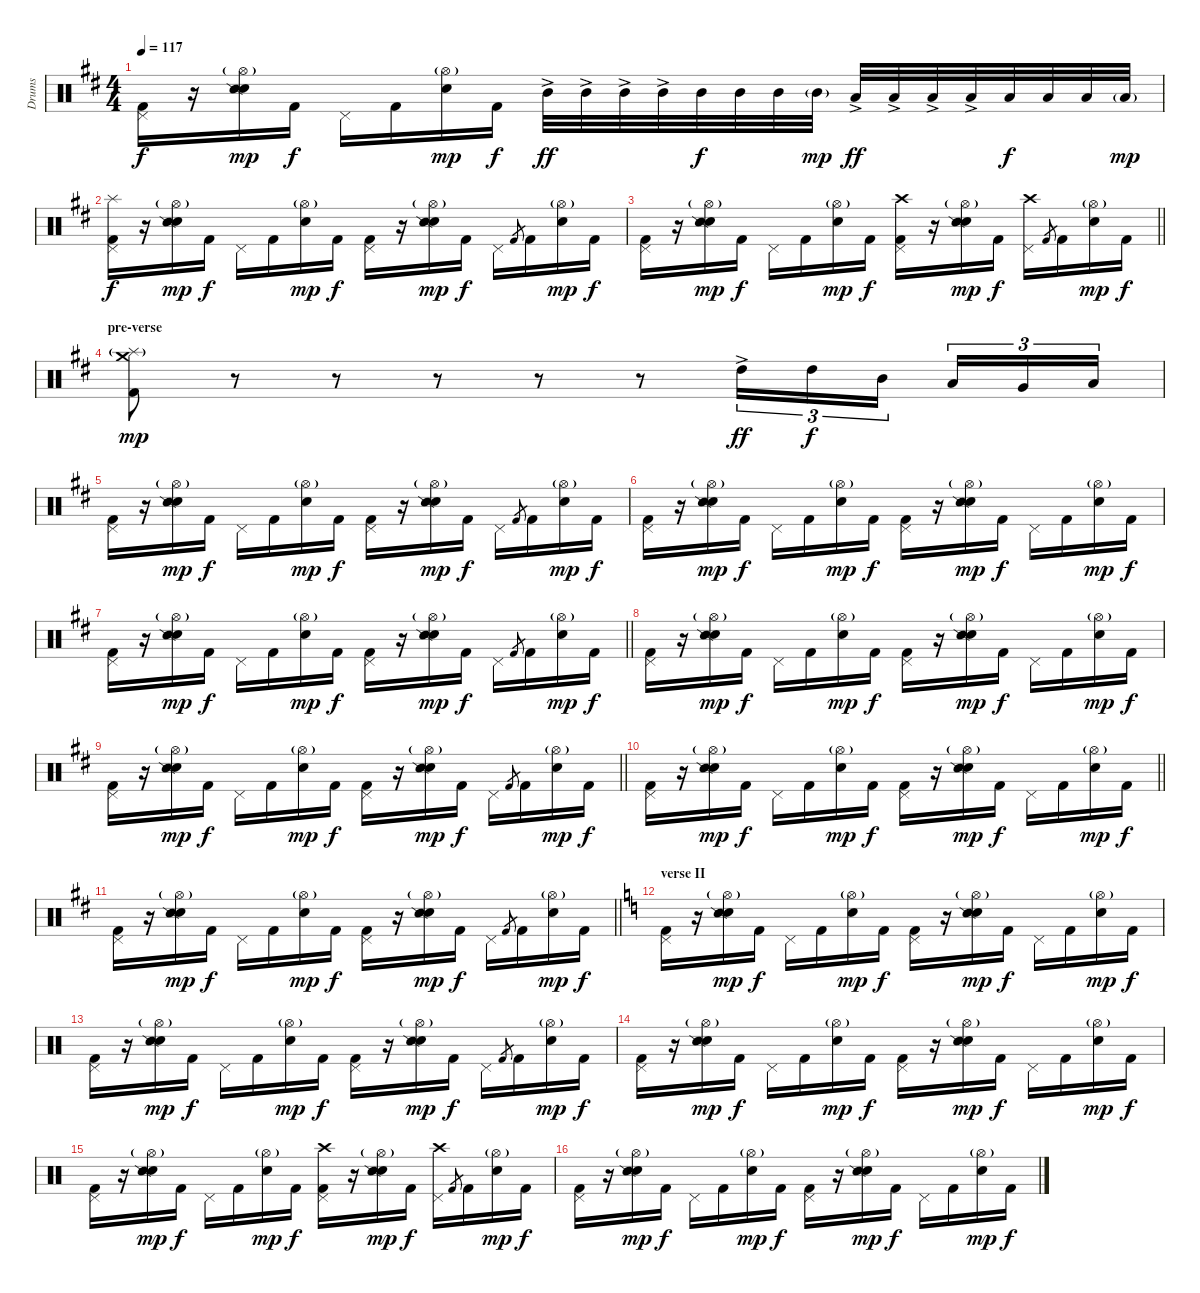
\track ("Drums" "Drums") {instrument percussion}
\staff {score}
\articulation defaults
\ts (4 4)
\tempo 117
\clef neutral
\ks d
("Pedal Hi-Hat (hit)" "Kick (hit) 2").16{dy f} r.16 ("Hi-Hat (open)"{g} "Electric Snare (hit)" "Snare (side stick) 2").16{dy mp} "Kick (hit) 2".16{dy f} "Pedal Hi-Hat (hit)".16 "Kick (hit) 2".16 ("Hi-Hat (open)"{g} "Electric Snare (hit)").16{dy mp} "Kick (hit) 2".16{dy f} "Mid Tom (hit)"{ac}.32{dy ff} "Mid Tom (hit)"{ac}.32 "Mid Tom (hit)"{ac}.32 "Mid Tom (hit)"{ac}.32 "Mid Tom (hit)".32{dy f} "Mid Tom (hit)".32 "Mid Tom (hit)".32 "Mid Tom (hit)"{g}.32{dy mp} "Low Tom (hit)"{ac}.32{dy ff} "Low Tom (hit)"{ac}.32 "Low Tom (hit)"{ac}.32 "Low Tom (hit)"{ac}.32 "Low Tom (hit)".32{dy f} "Low Tom (hit)".32 "Low Tom (hit)".32 "Low Tom (hit)"{g}.32{dy mp} |
("Pedal Hi-Hat (hit)" "Splash (hit)" "Kick (hit) 2").16{dy f} r.16 ("Hi-Hat (open)"{g} "Electric Snare (hit)" "Snare (side stick) 2").16{dy mp} "Kick (hit) 2".16{dy f} "Pedal Hi-Hat (hit)".16 "Kick (hit) 2".16 ("Hi-Hat (open)"{g} "Electric Snare (hit)").16{dy mp} "Kick (hit) 2".16{dy f} ("Pedal Hi-Hat (hit)" "Kick (hit) 2").16 r.16 ("Hi-Hat (open)"{g} "Electric Snare (hit)" "Snare (side stick) 2").16{dy mp} "Kick (hit) 2".16{dy f} "Pedal Hi-Hat (hit)".16 "Kick (hit) 2".8{gr} "Kick (hit) 2".16 ("Hi-Hat (open)"{g} "Electric Snare (hit)").16{dy mp} "Kick (hit) 2".16{dy f} |
\barLineRight lightlight
("Pedal Hi-Hat (hit)" "Kick (hit) 2").16 r.16 ("Hi-Hat (open)"{g} "Electric Snare (hit)" "Snare (side stick) 2").16{dy mp} "Kick (hit) 2".16{dy f} "Pedal Hi-Hat (hit)".16 "Kick (hit) 2".16 ("Hi-Hat (open)"{g} "Electric Snare (hit)").16{dy mp} "Kick (hit) 2".16{dy f} ("Pedal Hi-Hat (hit)" "Crash high (hit)" "Kick (hit) 2").16 r.16 ("Hi-Hat (open)"{g} "Electric Snare (hit)" "Snare (side stick) 2").16{dy mp} "Kick (hit) 2".16{dy f} ("Pedal Hi-Hat (hit)" "Crash high (hit)").16 "Kick (hit) 2".8{gr} "Kick (hit) 2".16 ("Hi-Hat (open)"{g} "Electric Snare (hit)").16{dy mp} "Kick (hit) 2".16{dy f} |
\section ("" "pre-verse")
("Splash (hit)"{g} "Crash medium (hit)" "Kick (hit) 2").8{dy mp} r.8 r.8 r.8 r.8 r.8 "High Tom (hit)"{ac}.16{tu (3 2) dy ff} "High Tom (hit)".16{tu (3 2) dy f} "Mid Tom (hit)".16{tu (3 2) beam splitsecondary} "Low Tom (hit)".16{tu (3 2)} "Very Low Tom (hit)".16{tu (3 2)} "Low Floor Tom (hit)".16{tu (3 2)} |
("Pedal Hi-Hat (hit)" "Kick (hit) 2").16 r.16 ("Hi-Hat (open)"{g} "Electric Snare (hit)" "Snare (side stick) 2").16{dy mp} "Kick (hit) 2".16{dy f} "Pedal Hi-Hat (hit)".16 "Kick (hit) 2".16 ("Hi-Hat (open)"{g} "Electric Snare (hit)").16{dy mp} "Kick (hit) 2".16{dy f} ("Pedal Hi-Hat (hit)" "Kick (hit) 2").16 r.16 ("Hi-Hat (open)"{g} "Electric Snare (hit)" "Snare (side stick) 2").16{dy mp} "Kick (hit) 2".16{dy f} "Pedal Hi-Hat (hit)".16 "Kick (hit) 2".8{gr} "Kick (hit) 2".16 ("Hi-Hat (open)"{g} "Electric Snare (hit)").16{dy mp} "Kick (hit) 2".16{dy f} |
("Pedal Hi-Hat (hit)" "Kick (hit) 2").16 r.16 ("Hi-Hat (open)"{g} "Electric Snare (hit)" "Snare (side stick) 2").16{dy mp} "Kick (hit) 2".16{dy f} "Pedal Hi-Hat (hit)".16 "Kick (hit) 2".16 ("Hi-Hat (open)"{g} "Electric Snare (hit)").16{dy mp} "Kick (hit) 2".16{dy f} ("Pedal Hi-Hat (hit)" "Kick (hit) 2").16 r.16 ("Hi-Hat (open)"{g} "Electric Snare (hit)" "Snare (side stick) 2").16{dy mp} "Kick (hit) 2".16{dy f} "Pedal Hi-Hat (hit)".16 "Kick (hit) 2".16 ("Hi-Hat (open)"{g} "Electric Snare (hit)").16{dy mp} "Kick (hit) 2".16{dy f} |
\barLineRight lightlight
("Pedal Hi-Hat (hit)" "Kick (hit) 2").16 r.16 ("Hi-Hat (open)"{g} "Electric Snare (hit)" "Snare (side stick) 2").16{dy mp} "Kick (hit) 2".16{dy f} "Pedal Hi-Hat (hit)".16 "Kick (hit) 2".16 ("Hi-Hat (open)"{g} "Electric Snare (hit)").16{dy mp} "Kick (hit) 2".16{dy f} ("Pedal Hi-Hat (hit)" "Kick (hit) 2").16 r.16 ("Hi-Hat (open)"{g} "Electric Snare (hit)" "Snare (side stick) 2").16{dy mp} "Kick (hit) 2".16{dy f} "Pedal Hi-Hat (hit)".16 "Kick (hit) 2".8{gr} "Kick (hit) 2".16 ("Hi-Hat (open)"{g} "Electric Snare (hit)").16{dy mp} "Kick (hit) 2".16{dy f} |
("Pedal Hi-Hat (hit)" "Kick (hit) 2").16 r.16 ("Hi-Hat (open)"{g} "Electric Snare (hit)" "Snare (side stick) 2").16{dy mp} "Kick (hit) 2".16{dy f} "Pedal Hi-Hat (hit)".16 "Kick (hit) 2".16 ("Hi-Hat (open)"{g} "Electric Snare (hit)").16{dy mp} "Kick (hit) 2".16{dy f} ("Pedal Hi-Hat (hit)" "Kick (hit) 2").16 r.16 ("Hi-Hat (open)"{g} "Electric Snare (hit)" "Snare (side stick) 2").16{dy mp} "Kick (hit) 2".16{dy f} "Pedal Hi-Hat (hit)".16 "Kick (hit) 2".16 ("Hi-Hat (open)"{g} "Electric Snare (hit)").16{dy mp} "Kick (hit) 2".16{dy f} |
\barLineRight lightlight
("Pedal Hi-Hat (hit)" "Kick (hit) 2").16 r.16 ("Hi-Hat (open)"{g} "Electric Snare (hit)" "Snare (side stick) 2").16{dy mp} "Kick (hit) 2".16{dy f} "Pedal Hi-Hat (hit)".16 "Kick (hit) 2".16 ("Hi-Hat (open)"{g} "Electric Snare (hit)").16{dy mp} "Kick (hit) 2".16{dy f} ("Pedal Hi-Hat (hit)" "Kick (hit) 2").16 r.16 ("Hi-Hat (open)"{g} "Electric Snare (hit)" "Snare (side stick) 2").16{dy mp} "Kick (hit) 2".16{dy f} "Pedal Hi-Hat (hit)".16 "Kick (hit) 2".8{gr} "Kick (hit) 2".16 ("Hi-Hat (open)"{g} "Electric Snare (hit)").16{dy mp} "Kick (hit) 2".16{dy f} |
\barLineRight lightlight
("Pedal Hi-Hat (hit)" "Kick (hit) 2").16 r.16 ("Hi-Hat (open)"{g} "Electric Snare (hit)" "Snare (side stick) 2").16{dy mp} "Kick (hit) 2".16{dy f} "Pedal Hi-Hat (hit)".16 "Kick (hit) 2".16 ("Hi-Hat (open)"{g} "Electric Snare (hit)").16{dy mp} "Kick (hit) 2".16{dy f} ("Pedal Hi-Hat (hit)" "Kick (hit) 2").16 r.16 ("Hi-Hat (open)"{g} "Electric Snare (hit)" "Snare (side stick) 2").16{dy mp} "Kick (hit) 2".16{dy f} "Pedal Hi-Hat (hit)".16 "Kick (hit) 2".16 ("Hi-Hat (open)"{g} "Electric Snare (hit)").16{dy mp} "Kick (hit) 2".16{dy f} |
\barLineRight lightlight
("Pedal Hi-Hat (hit)" "Kick (hit) 2").16 r.16 ("Hi-Hat (open)"{g} "Electric Snare (hit)" "Snare (side stick) 2").16{dy mp} "Kick (hit) 2".16{dy f} "Pedal Hi-Hat (hit)".16 "Kick (hit) 2".16 ("Hi-Hat (open)"{g} "Electric Snare (hit)").16{dy mp} "Kick (hit) 2".16{dy f} ("Pedal Hi-Hat (hit)" "Kick (hit) 2").16 r.16 ("Hi-Hat (open)"{g} "Electric Snare (hit)" "Snare (side stick) 2").16{dy mp} "Kick (hit) 2".16{dy f} "Pedal Hi-Hat (hit)".16 "Kick (hit) 2".8{gr} "Kick (hit) 2".16 ("Hi-Hat (open)"{g} "Electric Snare (hit)").16{dy mp} "Kick (hit) 2".16{dy f} |
\section ("" "verse II")
\ks c
("Pedal Hi-Hat (hit)" "Kick (hit) 2").16 r.16 ("Hi-Hat (open)"{g} "Electric Snare (hit)" "Snare (side stick) 2").16{dy mp} "Kick (hit) 2".16{dy f} "Pedal Hi-Hat (hit)".16 "Kick (hit) 2".16 ("Hi-Hat (open)"{g} "Electric Snare (hit)").16{dy mp} "Kick (hit) 2".16{dy f} ("Pedal Hi-Hat (hit)" "Kick (hit) 2").16 r.16 ("Hi-Hat (open)"{g} "Electric Snare (hit)" "Snare (side stick) 2").16{dy mp} "Kick (hit) 2".16{dy f} "Pedal Hi-Hat (hit)".16 "Kick (hit) 2".16 ("Hi-Hat (open)"{g} "Electric Snare (hit)").16{dy mp} "Kick (hit) 2".16{dy f} |
("Pedal Hi-Hat (hit)" "Kick (hit) 2").16 r.16 ("Hi-Hat (open)"{g} "Electric Snare (hit)" "Snare (side stick) 2").16{dy mp} "Kick (hit) 2".16{dy f} "Pedal Hi-Hat (hit)".16 "Kick (hit) 2".16 ("Hi-Hat (open)"{g} "Electric Snare (hit)").16{dy mp} "Kick (hit) 2".16{dy f} ("Pedal Hi-Hat (hit)" "Kick (hit) 2").16 r.16 ("Hi-Hat (open)"{g} "Electric Snare (hit)" "Snare (side stick) 2").16{dy mp} "Kick (hit) 2".16{dy f} "Pedal Hi-Hat (hit)".16 "Kick (hit) 2".8{gr} "Kick (hit) 2".16 ("Hi-Hat (open)"{g} "Electric Snare (hit)").16{dy mp} "Kick (hit) 2".16{dy f} |
("Pedal Hi-Hat (hit)" "Kick (hit) 2").16 r.16 ("Hi-Hat (open)"{g} "Electric Snare (hit)" "Snare (side stick) 2").16{dy mp} "Kick (hit) 2".16{dy f} "Pedal Hi-Hat (hit)".16 "Kick (hit) 2".16 ("Hi-Hat (open)"{g} "Electric Snare (hit)").16{dy mp} "Kick (hit) 2".16{dy f} ("Pedal Hi-Hat (hit)" "Kick (hit) 2").16 r.16 ("Hi-Hat (open)"{g} "Electric Snare (hit)" "Snare (side stick) 2").16{dy mp} "Kick (hit) 2".16{dy f} "Pedal Hi-Hat (hit)".16 "Kick (hit) 2".16 ("Hi-Hat (open)"{g} "Electric Snare (hit)").16{dy mp} "Kick (hit) 2".16{dy f} |
("Pedal Hi-Hat (hit)" "Kick (hit) 2").16 r.16 ("Hi-Hat (open)"{g} "Electric Snare (hit)" "Snare (side stick) 2").16{dy mp} "Kick (hit) 2".16{dy f} "Pedal Hi-Hat (hit)".16 "Kick (hit) 2".16 ("Hi-Hat (open)"{g} "Electric Snare (hit)").16{dy mp} "Kick (hit) 2".16{dy f} ("Pedal Hi-Hat (hit)" "Crash high (hit)" "Kick (hit) 2").16 r.16 ("Hi-Hat (open)"{g} "Electric Snare (hit)" "Snare (side stick) 2").16{dy mp} "Kick (hit) 2".16{dy f} ("Pedal Hi-Hat (hit)" "Crash high (hit)").16 "Kick (hit) 2".8{gr} "Kick (hit) 2".16 ("Hi-Hat (open)"{g} "Electric Snare (hit)").16{dy mp} "Kick (hit) 2".16{dy f} |
("Pedal Hi-Hat (hit)" "Kick (hit) 2").16 r.16 ("Hi-Hat (open)"{g} "Electric Snare (hit)" "Snare (side stick) 2").16{dy mp} "Kick (hit) 2".16{dy f} "Pedal Hi-Hat (hit)".16 "Kick (hit) 2".16 ("Hi-Hat (open)"{g} "Electric Snare (hit)").16{dy mp} "Kick (hit) 2".16{dy f} ("Pedal Hi-Hat (hit)" "Kick (hit) 2").16 r.16 ("Hi-Hat (open)"{g} "Electric Snare (hit)" "Snare (side stick) 2").16{dy mp} "Kick (hit) 2".16{dy f} "Pedal Hi-Hat (hit)".16 "Kick (hit) 2".16 ("Hi-Hat (open)"{g} "Electric Snare (hit)").16{dy mp} "Kick (hit) 2".16{dy f}
